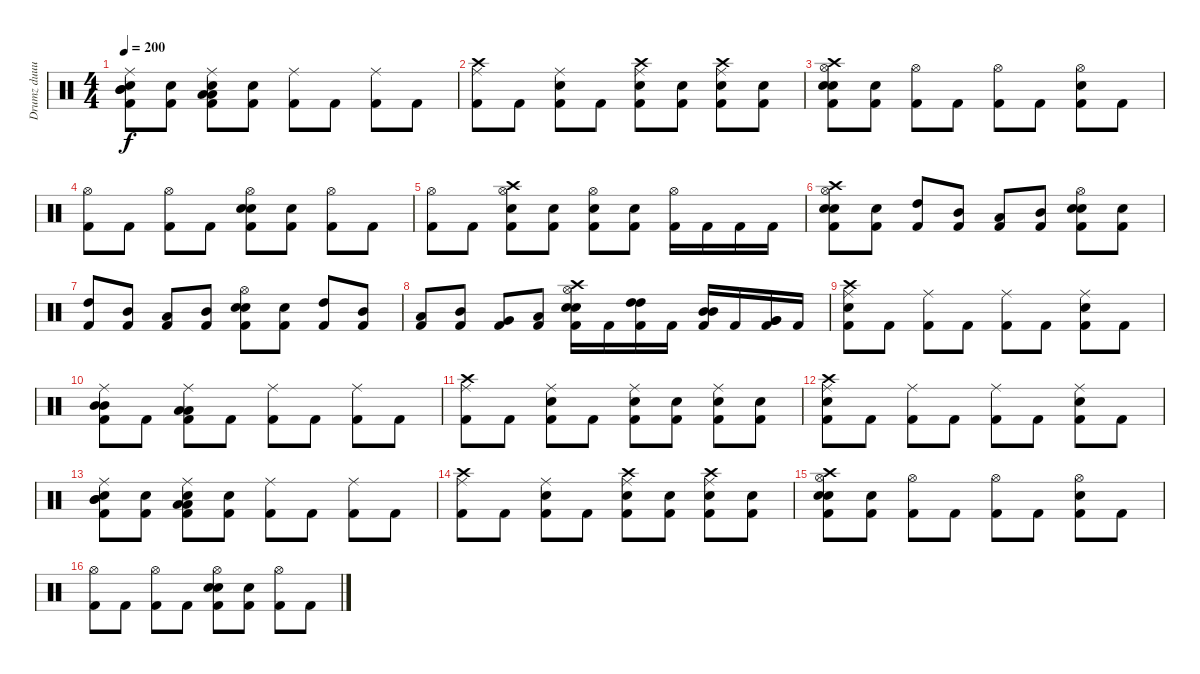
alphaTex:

\track ("Drumz duuuuude" "Drumz duuu") {instrument percussion}
\staff {score}
\articulation defaults
\ts (4 4)
\tempo 200
\clef neutral
\ks c
("Ride (middle)" "Kick (hit) 2" "Electric Snare (hit)" "Mid Tom (hit)" "Mid Tom (hit)").8{dy f} ("Kick (hit) 2" "Electric Snare (hit)").8 ("Ride (middle)" "Kick (hit) 2" "Electric Snare (hit)" "Low Tom (hit)" "Low Tom (hit)").8 ("Kick (hit) 2" "Electric Snare (hit)").8 ("Ride (middle)" "Kick (hit) 2").8 "Kick (hit) 2".8 ("Ride (middle)" "Kick (hit) 2").8 "Kick (hit) 2".8 |
("Crash high (hit)" "Ride (middle)" "Kick (hit) 2").8 "Kick (hit) 2".8 ("Ride (middle)" "Kick (hit) 2" "Snare (hit) 2").8 "Kick (hit) 2".8 ("Crash high (hit)" "Ride (middle)" "Kick (hit) 2" "Snare (hit) 2").8 ("Kick (hit) 2" "Snare (hit) 2").8 ("Crash high (hit)" "Ride (middle)" "Kick (hit) 2" "Snare (hit) 2").8 ("Kick (hit) 2" "Snare (hit) 2").8 |
("Crash high (hit)" "Hi-Hat (open)" "Kick (hit) 2" "Snare (hit) 2" "Electric Snare (hit)").8 ("Kick (hit) 2" "Electric Snare (hit)").8 ("Hi-Hat (open)" "Kick (hit) 2").8 "Kick (hit) 2".8 ("Hi-Hat (open)" "Kick (hit) 2").8 "Kick (hit) 2".8 ("Hi-Hat (open)" "Kick (hit) 2" "Snare (hit) 2").8 "Kick (hit) 2".8 |
("Hi-Hat (open)" "Kick (hit) 2").8 "Kick (hit) 2".8 ("Hi-Hat (open)" "Kick (hit) 2").8 "Kick (hit) 2".8 ("Hi-Hat (open)" "Kick (hit) 2" "Snare (hit) 2" "Electric Snare (hit)").8 ("Kick (hit) 2" "Electric Snare (hit)").8 ("Hi-Hat (open)" "Kick (hit) 2").8 "Kick (hit) 2".8 |
("Hi-Hat (open)" "Kick (hit) 2").8 "Kick (hit) 2".8 ("Crash high (hit)" "Hi-Hat (open)" "Kick (hit) 2" "Electric Snare (hit)").8 ("Kick (hit) 2" "Electric Snare (hit)").8 ("Hi-Hat (open)" "Kick (hit) 2" "Electric Snare (hit)").8 ("Kick (hit) 2" "Electric Snare (hit)").8 ("Hi-Hat (open)" "Kick (hit) 2").16 "Kick (hit) 2".16 "Kick (hit) 2".16 "Kick (hit) 2".16 |
("Crash high (hit)" "Hi-Hat (open)" "Kick (hit) 2" "Snare (hit) 2" "Electric Snare (hit)").8 ("Kick (hit) 2" "Electric Snare (hit)").8 ("Kick (hit) 2" "High Tom (hit)").8 ("Kick (hit) 2" "Mid Tom (hit)").8 ("Kick (hit) 2" "Low Tom (hit)").8 ("Kick (hit) 2" "Mid Tom (hit)").8 ("Hi-Hat (open)" "Kick (hit) 2" "Snare (hit) 2" "Electric Snare (hit)").8 ("Kick (hit) 2" "Electric Snare (hit)").8 |
("Kick (hit) 2" "High Tom (hit)").8 ("Kick (hit) 2" "Mid Tom (hit)").8 ("Kick (hit) 2" "Low Tom (hit)").8 ("Kick (hit) 2" "Mid Tom (hit)").8 ("Hi-Hat (open)" "Kick (hit) 2" "Snare (hit) 2" "Electric Snare (hit)").8 ("Kick (hit) 2" "Electric Snare (hit)").8 ("Kick (hit) 2" "High Tom (hit)").8 ("Kick (hit) 2" "Mid Tom (hit)").8 |
("Kick (hit) 2" "Low Tom (hit)").8 ("Kick (hit) 2" "Mid Tom (hit)").8 ("Kick (hit) 2" "Very Low Tom (hit)").8 ("Kick (hit) 2" "Low Floor Tom (hit)").8 ("Crash high (hit)" "Hi-Hat (open)" "Kick (hit) 2" "Snare (hit) 2" "Electric Snare (hit)").16 "Kick (hit) 2".16 ("Kick (hit) 2" "High Tom (hit)" "High Tom (hit)").16 "Kick (hit) 2".16 ("Kick (hit) 2" "Mid Tom (hit)" "Mid Tom (hit)").16 "Kick (hit) 2".16 ("Kick (hit) 2" "Very Low Tom (hit)" "Very Low Tom (hit)").16 "Kick (hit) 2".16 |
("Crash high (hit)" "Ride (middle)" "Kick (hit) 2" "Snare (hit) 2").8 "Kick (hit) 2".8 ("Ride (middle)" "Kick (hit) 2").8 "Kick (hit) 2".8 ("Ride (middle)" "Kick (hit) 2").8 "Kick (hit) 2".8 ("Ride (middle)" "Kick (hit) 2" "Snare (hit) 2").8 "Kick (hit) 2".8 |
("Ride (middle)" "Kick (hit) 2" "Mid Tom (hit)" "Mid Tom (hit)").8 "Kick (hit) 2".8 ("Ride (middle)" "Kick (hit) 2" "Low Tom (hit)" "Low Tom (hit)").8 "Kick (hit) 2".8 ("Ride (middle)" "Kick (hit) 2").8 "Kick (hit) 2".8 ("Ride (middle)" "Kick (hit) 2").8 "Kick (hit) 2".8 |
("Crash high (hit)" "Ride (middle)" "Kick (hit) 2").8 "Kick (hit) 2".8 ("Ride (middle)" "Kick (hit) 2" "Snare (hit) 2").8 "Kick (hit) 2".8 ("Ride (middle)" "Kick (hit) 2" "Electric Snare (hit)").8 ("Kick (hit) 2" "Electric Snare (hit)").8 ("Ride (middle)" "Kick (hit) 2" "Electric Snare (hit)").8 ("Kick (hit) 2" "Electric Snare (hit)").8 |
("Crash high (hit)" "Ride (middle)" "Kick (hit) 2" "Snare (hit) 2").8 "Kick (hit) 2".8 ("Ride (middle)" "Kick (hit) 2").8 "Kick (hit) 2".8 ("Ride (middle)" "Kick (hit) 2").8 "Kick (hit) 2".8 ("Ride (middle)" "Kick (hit) 2" "Snare (hit) 2").8 "Kick (hit) 2".8 |
("Ride (middle)" "Kick (hit) 2" "Electric Snare (hit)" "Mid Tom (hit)" "Mid Tom (hit)").8 ("Kick (hit) 2" "Electric Snare (hit)").8 ("Ride (middle)" "Kick (hit) 2" "Electric Snare (hit)" "Low Tom (hit)" "Low Tom (hit)").8 ("Kick (hit) 2" "Electric Snare (hit)").8 ("Ride (middle)" "Kick (hit) 2").8 "Kick (hit) 2".8 ("Ride (middle)" "Kick (hit) 2").8 "Kick (hit) 2".8 |
("Crash high (hit)" "Ride (middle)" "Kick (hit) 2").8 "Kick (hit) 2".8 ("Ride (middle)" "Kick (hit) 2" "Snare (hit) 2").8 "Kick (hit) 2".8 ("Crash high (hit)" "Ride (middle)" "Kick (hit) 2" "Snare (hit) 2").8 ("Kick (hit) 2" "Snare (hit) 2").8 ("Crash high (hit)" "Ride (middle)" "Kick (hit) 2" "Snare (hit) 2").8 ("Kick (hit) 2" "Snare (hit) 2").8 |
("Crash high (hit)" "Hi-Hat (open)" "Kick (hit) 2" "Snare (hit) 2" "Electric Snare (hit)").8 ("Kick (hit) 2" "Electric Snare (hit)").8 ("Hi-Hat (open)" "Kick (hit) 2").8 "Kick (hit) 2".8 ("Hi-Hat (open)" "Kick (hit) 2").8 "Kick (hit) 2".8 ("Hi-Hat (open)" "Kick (hit) 2" "Snare (hit) 2").8 "Kick (hit) 2".8 |
("Hi-Hat (open)" "Kick (hit) 2").8 "Kick (hit) 2".8 ("Hi-Hat (open)" "Kick (hit) 2").8 "Kick (hit) 2".8 ("Hi-Hat (open)" "Kick (hit) 2" "Snare (hit) 2" "Electric Snare (hit)").8 ("Kick (hit) 2" "Electric Snare (hit)").8 ("Hi-Hat (open)" "Kick (hit) 2").8 "Kick (hit) 2".8
